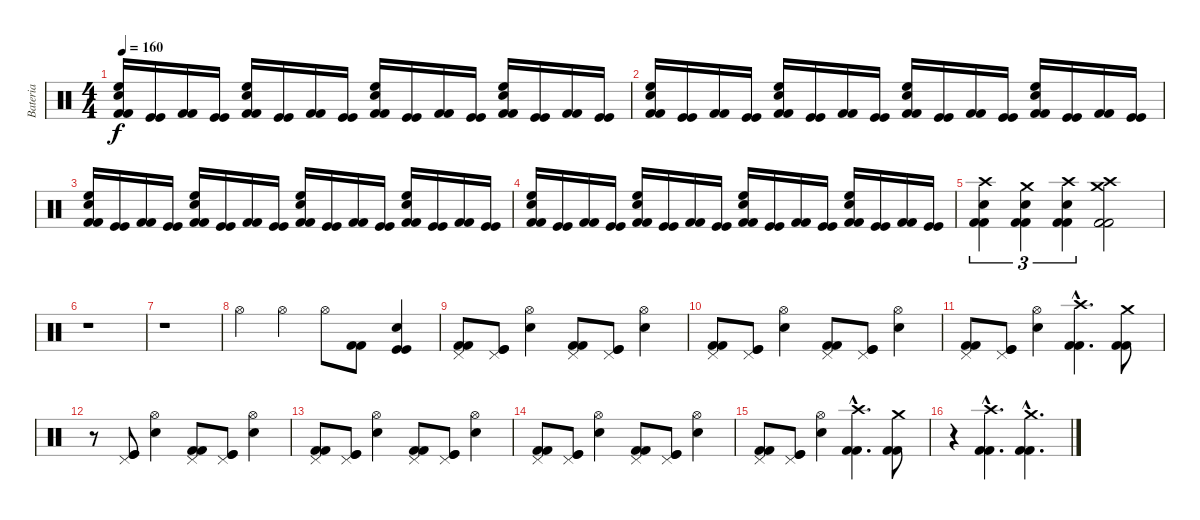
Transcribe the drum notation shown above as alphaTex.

\track ("Bateria" "Bateria") {instrument percussion}
\staff {score}
\articulation defaults
\ts (4 4)
\tempo 160
\clef neutral
\ks c
("Kick (hit) 2" "Kick (hit) 2" "Snare (hit) 2" "High Floor Tom (hit)").16{dy f} ("Kick (hit)" "Kick (hit)").16 ("Kick (hit) 2" "Kick (hit) 2").16 ("Kick (hit)" "Kick (hit)").16 ("Kick (hit) 2" "Kick (hit) 2" "Snare (hit) 2" "High Floor Tom (hit)").16 ("Kick (hit)" "Kick (hit)").16 ("Kick (hit) 2" "Kick (hit) 2").16 ("Kick (hit)" "Kick (hit)").16 ("Kick (hit) 2" "Kick (hit) 2" "Snare (hit) 2" "High Floor Tom (hit)").16 ("Kick (hit)" "Kick (hit)").16 ("Kick (hit) 2" "Kick (hit) 2").16 ("Kick (hit)" "Kick (hit)").16 ("Kick (hit) 2" "Kick (hit) 2" "Snare (hit) 2" "High Floor Tom (hit)").16 ("Kick (hit)" "Kick (hit)").16 ("Kick (hit) 2" "Kick (hit) 2").16 ("Kick (hit)" "Kick (hit)").16 |
("Kick (hit) 2" "Kick (hit) 2" "Snare (hit) 2" "High Floor Tom (hit)").16 ("Kick (hit)" "Kick (hit)").16 ("Kick (hit) 2" "Kick (hit) 2").16 ("Kick (hit)" "Kick (hit)").16 ("Kick (hit) 2" "Kick (hit) 2" "Snare (hit) 2" "High Floor Tom (hit)").16 ("Kick (hit)" "Kick (hit)").16 ("Kick (hit) 2" "Kick (hit) 2").16 ("Kick (hit)" "Kick (hit)").16 ("Kick (hit) 2" "Kick (hit) 2" "Snare (hit) 2" "High Floor Tom (hit)").16 ("Kick (hit)" "Kick (hit)").16 ("Kick (hit) 2" "Kick (hit) 2").16 ("Kick (hit)" "Kick (hit)").16 ("Kick (hit) 2" "Kick (hit) 2" "Snare (hit) 2" "High Floor Tom (hit)").16 ("Kick (hit)" "Kick (hit)").16 ("Kick (hit) 2" "Kick (hit) 2").16 ("Kick (hit)" "Kick (hit)").16 |
("Kick (hit) 2" "Kick (hit) 2" "Snare (hit) 2" "High Floor Tom (hit)").16 ("Kick (hit)" "Kick (hit)").16 ("Kick (hit) 2" "Kick (hit) 2").16 ("Kick (hit)" "Kick (hit)").16 ("Kick (hit) 2" "Kick (hit) 2" "Snare (hit) 2" "High Floor Tom (hit)").16 ("Kick (hit)" "Kick (hit)").16 ("Kick (hit) 2" "Kick (hit) 2").16 ("Kick (hit)" "Kick (hit)").16 ("Kick (hit) 2" "Kick (hit) 2" "Snare (hit) 2" "High Floor Tom (hit)").16 ("Kick (hit)" "Kick (hit)").16 ("Kick (hit) 2" "Kick (hit) 2").16 ("Kick (hit)" "Kick (hit)").16 ("Kick (hit) 2" "Kick (hit) 2" "Snare (hit) 2" "High Floor Tom (hit)").16 ("Kick (hit)" "Kick (hit)").16 ("Kick (hit) 2" "Kick (hit) 2").16 ("Kick (hit)" "Kick (hit)").16 |
("Kick (hit) 2" "Kick (hit) 2" "Snare (hit) 2" "High Floor Tom (hit)").16 ("Kick (hit)" "Kick (hit)").16 ("Kick (hit) 2" "Kick (hit) 2").16 ("Kick (hit)" "Kick (hit)").16 ("Kick (hit) 2" "Kick (hit) 2" "Snare (hit) 2" "High Floor Tom (hit)").16 ("Kick (hit)" "Kick (hit)").16 ("Kick (hit) 2" "Kick (hit) 2").16 ("Kick (hit)" "Kick (hit)").16 ("Kick (hit) 2" "Kick (hit) 2" "Snare (hit) 2" "High Floor Tom (hit)").16 ("Kick (hit)" "Kick (hit)").16 ("Kick (hit) 2" "Kick (hit) 2").16 ("Kick (hit)" "Kick (hit)").16 ("Kick (hit) 2" "Kick (hit) 2" "Snare (hit) 2" "High Floor Tom (hit)").16 ("Kick (hit)" "Kick (hit)").16 ("Kick (hit) 2" "Kick (hit) 2").16 ("Kick (hit)" "Kick (hit)").16 |
("Kick (hit) 2" "Kick (hit) 2" "Snare (hit) 2" "Crash high (hit)").4{tu (3 2)} ("Kick (hit) 2" "Kick (hit) 2" "Snare (hit) 2" "Crash medium (hit)").4{tu (3 2)} ("Kick (hit) 2" "Kick (hit) 2" "Snare (hit) 2" "Crash high (hit)").4{tu (3 2)} ("Kick (hit) 2" "Kick (hit) 2" "Crash high (hit)" "Crash medium (hit)").2 |
r.1 |
r.1 |
"Hi-Hat (open)".4 "Hi-Hat (open)".4 "Hi-Hat (open)".8 ("Kick (hit) 2" "Kick (hit) 2").8 ("Kick (hit)" "Kick (hit)" "Snare (hit) 2").4 |
("Kick (hit) 2" "Kick (hit) 2" "Pedal Hi-Hat (hit)").8 ("Kick (hit)" "Kick (hit)" "Pedal Hi-Hat (hit)").8 ("Snare (hit) 2" "Hi-Hat (open)").4 ("Kick (hit) 2" "Kick (hit) 2" "Pedal Hi-Hat (hit)").8 ("Kick (hit)" "Kick (hit)" "Pedal Hi-Hat (hit)").8 ("Snare (hit) 2" "Hi-Hat (open)").4 |
("Kick (hit) 2" "Kick (hit) 2" "Pedal Hi-Hat (hit)").8 ("Kick (hit)" "Kick (hit)" "Pedal Hi-Hat (hit)").8 ("Snare (hit) 2" "Hi-Hat (open)").4 ("Kick (hit) 2" "Kick (hit) 2" "Pedal Hi-Hat (hit)").8 ("Kick (hit)" "Kick (hit)" "Pedal Hi-Hat (hit)").8 ("Snare (hit) 2" "Hi-Hat (open)").4 |
("Kick (hit) 2" "Kick (hit) 2" "Pedal Hi-Hat (hit)").8 ("Kick (hit)" "Kick (hit)" "Pedal Hi-Hat (hit)").8 ("Snare (hit) 2" "Hi-Hat (open)").4 ("Kick (hit) 2"{hac} "Kick (hit) 2"{hac} "Crash high (hit)"{hac}).4{d} ("Kick (hit) 2" "Kick (hit) 2" "Crash medium (hit)").8 |
r.8 ("Kick (hit)" "Kick (hit)" "Pedal Hi-Hat (hit)").8 ("Snare (hit) 2" "Hi-Hat (open)").4 ("Kick (hit) 2" "Kick (hit) 2" "Pedal Hi-Hat (hit)").8 ("Kick (hit)" "Kick (hit)" "Pedal Hi-Hat (hit)").8 ("Snare (hit) 2" "Hi-Hat (open)").4 |
("Kick (hit) 2" "Kick (hit) 2" "Pedal Hi-Hat (hit)").8 ("Kick (hit)" "Kick (hit)" "Pedal Hi-Hat (hit)").8 ("Snare (hit) 2" "Hi-Hat (open)").4 ("Kick (hit) 2" "Kick (hit) 2" "Pedal Hi-Hat (hit)").8 ("Kick (hit)" "Kick (hit)" "Pedal Hi-Hat (hit)").8 ("Snare (hit) 2" "Hi-Hat (open)").4 |
("Kick (hit) 2" "Kick (hit) 2" "Pedal Hi-Hat (hit)").8 ("Kick (hit)" "Kick (hit)" "Pedal Hi-Hat (hit)").8 ("Snare (hit) 2" "Hi-Hat (open)").4 ("Kick (hit) 2" "Kick (hit) 2" "Pedal Hi-Hat (hit)").8 ("Kick (hit)" "Kick (hit)" "Pedal Hi-Hat (hit)").8 ("Snare (hit) 2" "Hi-Hat (open)").4 |
("Kick (hit) 2" "Kick (hit) 2" "Pedal Hi-Hat (hit)").8 ("Kick (hit)" "Kick (hit)" "Pedal Hi-Hat (hit)").8 ("Snare (hit) 2" "Hi-Hat (open)").4 ("Kick (hit) 2"{hac} "Kick (hit) 2"{hac} "Crash high (hit)"{hac}).4{d} ("Kick (hit) 2" "Kick (hit) 2" "Crash medium (hit)").8 |
r.4 ("Kick (hit) 2"{hac} "Kick (hit) 2"{hac} "Crash high (hit)"{hac}).4{d} ("Kick (hit) 2"{hac} "Kick (hit) 2"{hac} "Crash medium (hit)"{hac}).4{d}
